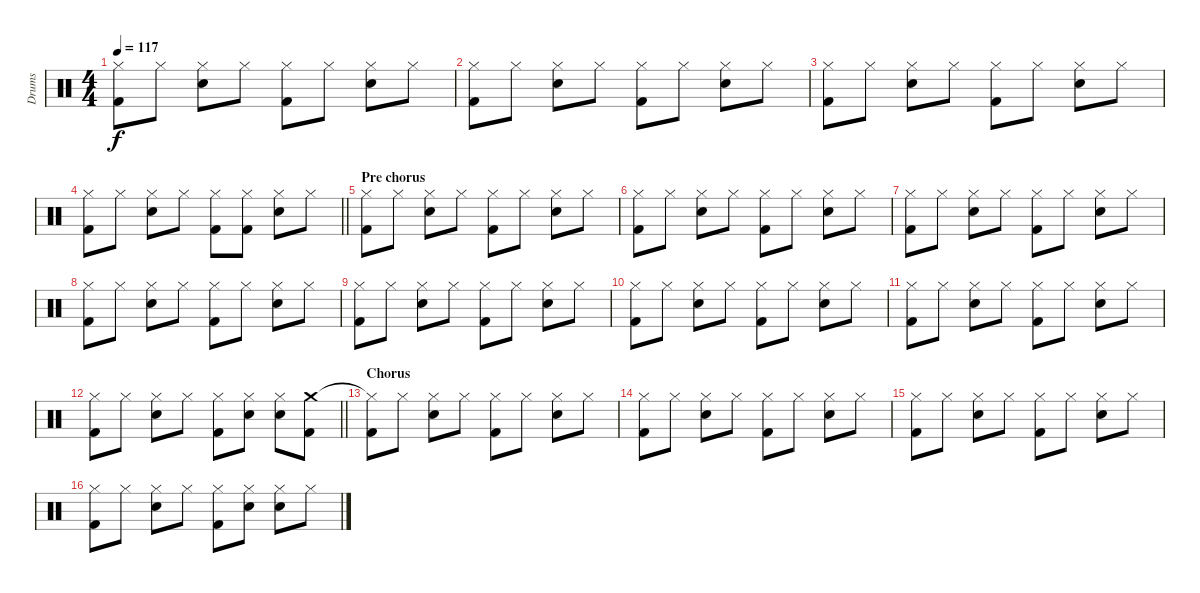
\track ("Drums" "Drums") {instrument percussion}
\staff {score}
\articulation defaults
\ts (4 4)
\tempo 117
\clef neutral
\ks c
("Hi-Hat (closed)" "Kick (hit) 2").8{dy f} "Hi-Hat (closed)".8 ("Hi-Hat (closed)" "Snare (hit) 2").8 "Hi-Hat (closed)".8 ("Hi-Hat (closed)" "Kick (hit) 2").8 "Hi-Hat (closed)".8 ("Hi-Hat (closed)" "Snare (hit) 2").8 "Hi-Hat (closed)".8 |
("Hi-Hat (closed)" "Kick (hit) 2").8 "Hi-Hat (closed)".8 ("Hi-Hat (closed)" "Snare (hit) 2").8 "Hi-Hat (closed)".8 ("Hi-Hat (closed)" "Kick (hit) 2").8 "Hi-Hat (closed)".8 ("Hi-Hat (closed)" "Snare (hit) 2").8 "Hi-Hat (closed)".8 |
("Hi-Hat (closed)" "Kick (hit) 2").8 "Hi-Hat (closed)".8 ("Hi-Hat (closed)" "Snare (hit) 2").8 "Hi-Hat (closed)".8 ("Hi-Hat (closed)" "Kick (hit) 2").8 "Hi-Hat (closed)".8 ("Hi-Hat (closed)" "Snare (hit) 2").8 "Hi-Hat (closed)".8 |
\barLineRight lightlight
("Hi-Hat (closed)" "Kick (hit) 2").8 "Hi-Hat (closed)".8 ("Hi-Hat (closed)" "Snare (hit) 2").8 "Hi-Hat (closed)".8 ("Hi-Hat (closed)" "Kick (hit) 2").8 ("Hi-Hat (closed)" "Kick (hit) 2").8 ("Hi-Hat (closed)" "Snare (hit) 2").8 "Hi-Hat (closed)".8 |
\section ("" "Pre chorus")
("Hi-Hat (closed)" "Kick (hit) 2").8 "Hi-Hat (closed)".8 ("Hi-Hat (closed)" "Snare (hit) 2").8 "Hi-Hat (closed)".8 ("Hi-Hat (closed)" "Kick (hit) 2").8 "Hi-Hat (closed)".8 ("Hi-Hat (closed)" "Snare (hit) 2").8 "Hi-Hat (closed)".8 |
("Hi-Hat (closed)" "Kick (hit) 2").8 "Hi-Hat (closed)".8 ("Hi-Hat (closed)" "Snare (hit) 2").8 "Hi-Hat (closed)".8 ("Hi-Hat (closed)" "Kick (hit) 2").8 "Hi-Hat (closed)".8 ("Hi-Hat (closed)" "Snare (hit) 2").8 "Hi-Hat (closed)".8 |
("Hi-Hat (closed)" "Kick (hit) 2").8 "Hi-Hat (closed)".8 ("Hi-Hat (closed)" "Snare (hit) 2").8 "Hi-Hat (closed)".8 ("Hi-Hat (closed)" "Kick (hit) 2").8 "Hi-Hat (closed)".8 ("Hi-Hat (closed)" "Snare (hit) 2").8 "Hi-Hat (closed)".8 |
("Hi-Hat (closed)" "Kick (hit) 2").8 "Hi-Hat (closed)".8 ("Hi-Hat (closed)" "Snare (hit) 2").8 "Hi-Hat (closed)".8 ("Hi-Hat (closed)" "Kick (hit) 2").8 "Hi-Hat (closed)".8 ("Hi-Hat (closed)" "Snare (hit) 2").8 "Hi-Hat (closed)".8 |
("Hi-Hat (closed)" "Kick (hit) 2").8 "Hi-Hat (closed)".8 ("Hi-Hat (closed)" "Snare (hit) 2").8 "Hi-Hat (closed)".8 ("Hi-Hat (closed)" "Kick (hit) 2").8 "Hi-Hat (closed)".8 ("Hi-Hat (closed)" "Snare (hit) 2").8 "Hi-Hat (closed)".8 |
("Hi-Hat (closed)" "Kick (hit) 2").8 "Hi-Hat (closed)".8 ("Hi-Hat (closed)" "Snare (hit) 2").8 "Hi-Hat (closed)".8 ("Hi-Hat (closed)" "Kick (hit) 2").8 "Hi-Hat (closed)".8 ("Hi-Hat (closed)" "Snare (hit) 2").8 "Hi-Hat (closed)".8 |
("Hi-Hat (closed)" "Kick (hit) 2").8 "Hi-Hat (closed)".8 ("Hi-Hat (closed)" "Snare (hit) 2").8 "Hi-Hat (closed)".8 ("Hi-Hat (closed)" "Kick (hit) 2").8 "Hi-Hat (closed)".8 ("Hi-Hat (closed)" "Snare (hit) 2").8 "Hi-Hat (closed)".8 |
\barLineRight lightlight
("Hi-Hat (closed)" "Kick (hit) 2").8 "Hi-Hat (closed)".8 ("Hi-Hat (closed)" "Snare (hit) 2").8 "Hi-Hat (closed)".8 ("Hi-Hat (closed)" "Kick (hit) 2").8 ("Hi-Hat (closed)" "Snare (hit) 2").8 ("Hi-Hat (closed)" "Snare (hit) 2").8 ("Crash medium (hit)" "Kick (hit) 2").8 |
\section ("" "Chorus")
("Hi-Hat (closed)"{t} "Kick (hit) 2").8 "Hi-Hat (closed)".8 ("Hi-Hat (closed)" "Snare (hit) 2").8 "Hi-Hat (closed)".8 ("Hi-Hat (closed)" "Kick (hit) 2").8 "Hi-Hat (closed)".8 ("Hi-Hat (closed)" "Snare (hit) 2").8 "Hi-Hat (closed)".8 |
("Hi-Hat (closed)" "Kick (hit) 2").8 "Hi-Hat (closed)".8 ("Hi-Hat (closed)" "Snare (hit) 2").8 "Hi-Hat (closed)".8 ("Hi-Hat (closed)" "Kick (hit) 2").8 "Hi-Hat (closed)".8 ("Hi-Hat (closed)" "Snare (hit) 2").8 "Hi-Hat (closed)".8 |
("Hi-Hat (closed)" "Kick (hit) 2").8 "Hi-Hat (closed)".8 ("Hi-Hat (closed)" "Snare (hit) 2").8 "Hi-Hat (closed)".8 ("Hi-Hat (closed)" "Kick (hit) 2").8 "Hi-Hat (closed)".8 ("Hi-Hat (closed)" "Snare (hit) 2").8 "Hi-Hat (closed)".8 |
("Hi-Hat (closed)" "Kick (hit) 2").8 "Hi-Hat (closed)".8 ("Hi-Hat (closed)" "Snare (hit) 2").8 "Hi-Hat (closed)".8 ("Hi-Hat (closed)" "Kick (hit) 2").8 ("Hi-Hat (closed)" "Snare (hit) 2").8 ("Hi-Hat (closed)" "Snare (hit) 2").8 "Hi-Hat (closed)".8
